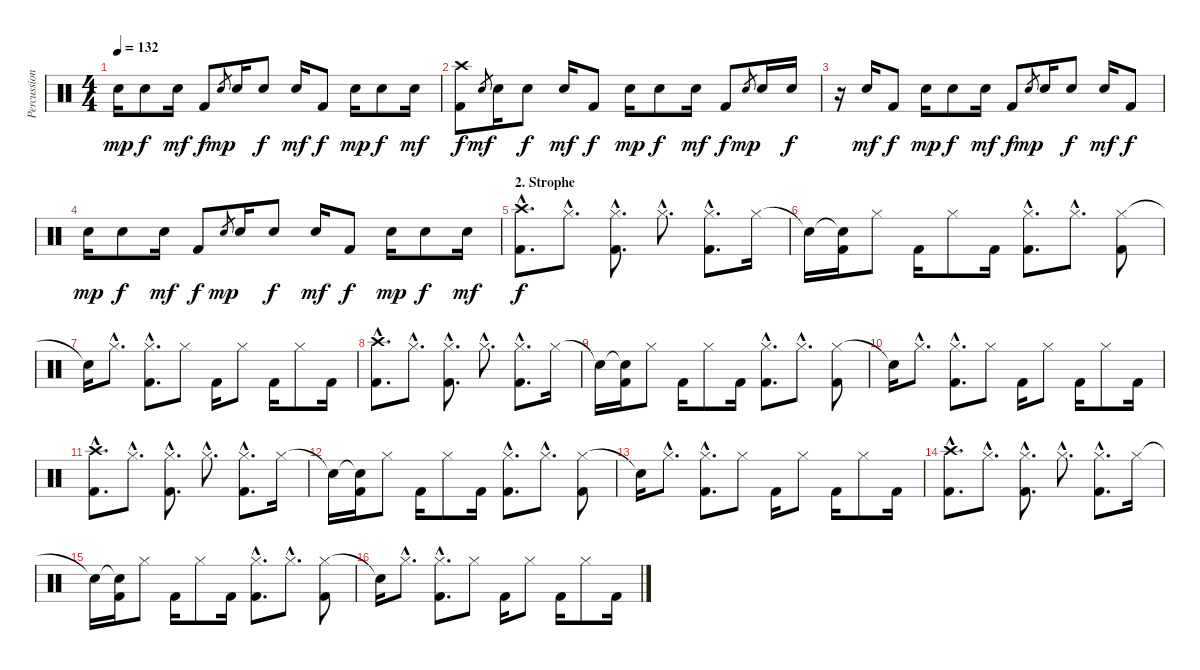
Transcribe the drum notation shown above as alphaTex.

\track ("Percussion" "Percussion") {instrument percussion}
\staff {score}
\articulation defaults
\ts (4 4)
\tempo 132
\clef neutral
\ks c "Snare (hit) 2".16{dy mp} "Electric Snare (hit)".8{dy f} "Electric Snare (hit)".16{dy mf} "Kick (hit) 2".8{dy f} "Snare (hit) 2".8{gr dy mp} "Snare (hit) 2".16 "Electric Snare (hit)".8{dy f} "Electric Snare (hit)".16{dy mf} "Kick (hit) 2".8{dy f} "Snare (hit) 2".16{dy mp} "Electric Snare (hit)".8{dy f} "Electric Snare (hit)".16{dy mf}
|
("Crash high (hit)" "Kick (hit) 2").8{dy f} "Snare (hit) 2".8{gr dy mf} "Snare (hit) 2".16 "Electric Snare (hit)".8{dy f} "Electric Snare (hit)".16{dy mf} "Kick (hit) 2".8{dy f} "Snare (hit) 2".16{dy mp} "Electric Snare (hit)".8{dy f} "Electric Snare (hit)".16{dy mf} "Kick (hit) 2".8{dy f} "Snare (hit) 2".8{gr dy mp} "Snare (hit) 2".16 "Electric Snare (hit)".16{dy f} |
r.16 "Electric Snare (hit)".16{dy mf} "Kick (hit) 2".8{dy f} "Snare (hit) 2".16{dy mp} "Electric Snare (hit)".8{dy f} "Electric Snare (hit)".16{dy mf} "Kick (hit) 2".8{dy f} "Snare (hit) 2".8{gr dy mp} "Snare (hit) 2".16 "Electric Snare (hit)".8{dy f} "Electric Snare (hit)".16{dy mf} "Kick (hit) 2".8{dy f} |
"Snare (hit) 2".16{dy mp} "Electric Snare (hit)".8{dy f} "Electric Snare (hit)".16{dy mf} "Kick (hit) 2".8{dy f} "Snare (hit) 2".8{gr dy mp} "Snare (hit) 2".16 "Electric Snare (hit)".8{dy f} "Electric Snare (hit)".16{dy mf} "Kick (hit) 2".8{dy f} "Snare (hit) 2".16{dy mp} "Electric Snare (hit)".8{dy f} "Electric Snare (hit)".16{dy mf} |
\section ("" "2. Strophe")
("Crash high (hit)"{hac} "Kick (hit) 2"{hac}).8{d dy f} "Hi-Hat (closed)"{hac}.8{d} ("Hi-Hat (closed)"{hac} "Kick (hit) 2"{hac}).8{d} "Hi-Hat (closed)"{hac}.8{d} ("Hi-Hat (closed)"{hac} "Kick (hit) 2"{hac}).8{d} "Hi-Hat (closed)".16 |
"Snare (hit)"{t}.16 ("Snare (hit)"{t} "Kick (hit) 2").16 "Hi-Hat (closed)".8 "Kick (hit) 2".16 "Hi-Hat (closed)".8 "Kick (hit) 2".16 ("Hi-Hat (closed)"{hac} "Kick (hit) 2"{hac}).8{d} "Hi-Hat (closed)"{hac}.8{d} ("Hi-Hat (closed)" "Kick (hit) 2").8 |
"Snare (hit)"{t}.16 "Hi-Hat (closed)"{hac}.8{d} ("Hi-Hat (closed)"{hac} "Kick (hit) 2"{hac}).8{d} "Hi-Hat (closed)".8 "Kick (hit) 2".16 "Hi-Hat (closed)".8 "Kick (hit) 2".16 "Hi-Hat (closed)".8 "Kick (hit) 2".16 |
("Crash high (hit)"{hac} "Kick (hit) 2"{hac}).8{d} "Hi-Hat (closed)"{hac}.8{d} ("Hi-Hat (closed)"{hac} "Kick (hit) 2"{hac}).8{d} "Hi-Hat (closed)"{hac}.8{d} ("Hi-Hat (closed)"{hac} "Kick (hit) 2"{hac}).8{d} "Hi-Hat (closed)".16 |
"Snare (hit)"{t}.16 ("Snare (hit)"{t} "Kick (hit) 2").16 "Hi-Hat (closed)".8 "Kick (hit) 2".16 "Hi-Hat (closed)".8 "Kick (hit) 2".16 ("Hi-Hat (closed)"{hac} "Kick (hit) 2"{hac}).8{d} "Hi-Hat (closed)"{hac}.8{d} ("Hi-Hat (closed)" "Kick (hit) 2").8 |
"Snare (hit)"{t}.16 "Hi-Hat (closed)"{hac}.8{d} ("Hi-Hat (closed)"{hac} "Kick (hit) 2"{hac}).8{d} "Hi-Hat (closed)".8 "Kick (hit) 2".16 "Hi-Hat (closed)".8 "Kick (hit) 2".16 "Hi-Hat (closed)".8 "Kick (hit) 2".16 |
("Crash high (hit)"{hac} "Kick (hit) 2"{hac}).8{d} "Hi-Hat (closed)"{hac}.8{d} ("Hi-Hat (closed)"{hac} "Kick (hit) 2"{hac}).8{d} "Hi-Hat (closed)"{hac}.8{d} ("Hi-Hat (closed)"{hac} "Kick (hit) 2"{hac}).8{d} "Hi-Hat (closed)".16 |
"Snare (hit)"{t}.16 ("Snare (hit)"{t} "Kick (hit) 2").16 "Hi-Hat (closed)".8 "Kick (hit) 2".16 "Hi-Hat (closed)".8 "Kick (hit) 2".16 ("Hi-Hat (closed)"{hac} "Kick (hit) 2"{hac}).8{d} "Hi-Hat (closed)"{hac}.8{d} ("Hi-Hat (closed)" "Kick (hit) 2").8 |
"Snare (hit)"{t}.16 "Hi-Hat (closed)"{hac}.8{d} ("Hi-Hat (closed)"{hac} "Kick (hit) 2"{hac}).8{d} "Hi-Hat (closed)".8 "Kick (hit) 2".16 "Hi-Hat (closed)".8 "Kick (hit) 2".16 "Hi-Hat (closed)".8 "Kick (hit) 2".16 |
("Crash high (hit)"{hac} "Kick (hit) 2"{hac}).8{d} "Hi-Hat (closed)"{hac}.8{d} ("Hi-Hat (closed)"{hac} "Kick (hit) 2"{hac}).8{d} "Hi-Hat (closed)"{hac}.8{d} ("Hi-Hat (closed)"{hac} "Kick (hit) 2"{hac}).8{d} "Hi-Hat (closed)".16 |
"Snare (hit)"{t}.16 ("Snare (hit)"{t} "Kick (hit) 2").16 "Hi-Hat (closed)".8 "Kick (hit) 2".16 "Hi-Hat (closed)".8 "Kick (hit) 2".16 ("Hi-Hat (closed)"{hac} "Kick (hit) 2"{hac}).8{d} "Hi-Hat (closed)"{hac}.8{d} ("Hi-Hat (closed)" "Kick (hit) 2").8 |
"Snare (hit)"{t}.16 "Hi-Hat (closed)"{hac}.8{d} ("Hi-Hat (closed)"{hac} "Kick (hit) 2"{hac}).8{d} "Hi-Hat (closed)".8 "Kick (hit) 2".16 "Hi-Hat (closed)".8 "Kick (hit) 2".16 "Hi-Hat (closed)".8 "Kick (hit) 2".16
